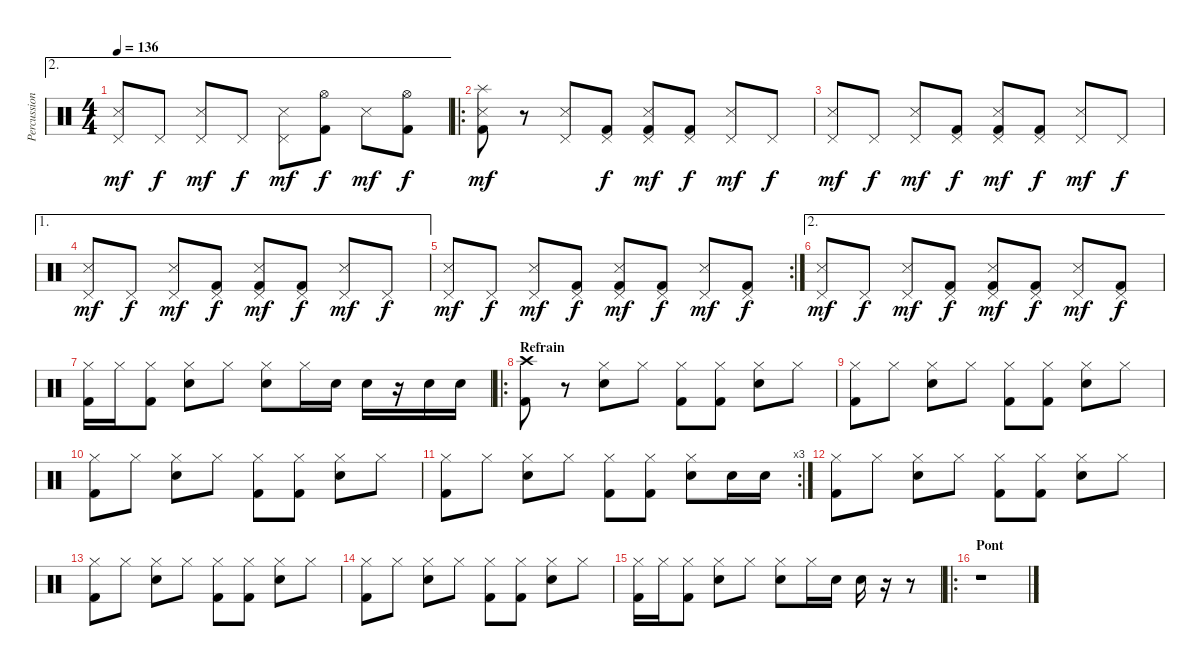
\track ("Percussions" "Percussion") {instrument percussion}
\staff {score}
\articulation defaults
\ae 2
\ts (4 4)
\tempo 136
\clef neutral
\ks c
("Pedal Hi-Hat (hit)" "Snare (side stick) 3").8{dy mf} "Pedal Hi-Hat (hit)".8{dy f} ("Pedal Hi-Hat (hit)" "Snare (side stick) 3").8{dy mf} "Pedal Hi-Hat (hit)".8{dy f} ("Pedal Hi-Hat (hit)" "Snare (side stick) 3").8{dy mf} ("Hi-Hat (open)" "Kick (hit) 2").8{dy f} "Snare (side stick) 3".8{dy mf} ("Hi-Hat (open)" "Kick (hit) 2").8{dy f} |
\ro
("Splash (hit)" "Snare (side stick) 3" "Kick (hit) 2").8{dy mf} r.8 ("Pedal Hi-Hat (hit)" "Snare (side stick) 3").8 ("Pedal Hi-Hat (hit)" "Kick (hit) 2").8{dy f} ("Pedal Hi-Hat (hit)" "Snare (side stick) 3" "Kick (hit) 2").8{dy mf} ("Pedal Hi-Hat (hit)" "Kick (hit) 2").8{dy f} ("Pedal Hi-Hat (hit)" "Snare (side stick) 3").8{dy mf} "Pedal Hi-Hat (hit)".8{dy f} |
("Pedal Hi-Hat (hit)" "Snare (side stick) 3").8{dy mf} "Pedal Hi-Hat (hit)".8{dy f} ("Pedal Hi-Hat (hit)" "Snare (side stick) 3").8{dy mf} ("Pedal Hi-Hat (hit)" "Kick (hit) 2").8{dy f} ("Pedal Hi-Hat (hit)" "Snare (side stick) 3" "Kick (hit) 2").8{dy mf} ("Pedal Hi-Hat (hit)" "Kick (hit) 2").8{dy f} ("Pedal Hi-Hat (hit)" "Snare (side stick) 3").8{dy mf} "Pedal Hi-Hat (hit)".8{dy f} |
\ae 1
("Pedal Hi-Hat (hit)" "Snare (side stick) 3").8{dy mf} "Pedal Hi-Hat (hit)".8{dy f} ("Pedal Hi-Hat (hit)" "Snare (side stick) 3").8{dy mf} ("Pedal Hi-Hat (hit)" "Kick (hit) 2").8{dy f} ("Pedal Hi-Hat (hit)" "Snare (side stick) 3" "Kick (hit) 2").8{dy mf} ("Pedal Hi-Hat (hit)" "Kick (hit) 2").8{dy f} ("Pedal Hi-Hat (hit)" "Snare (side stick) 3").8{dy mf} "Pedal Hi-Hat (hit)".8{dy f} |
\rc 2
("Pedal Hi-Hat (hit)" "Snare (side stick) 3").8{dy mf} "Pedal Hi-Hat (hit)".8{dy f} ("Pedal Hi-Hat (hit)" "Snare (side stick) 3").8{dy mf} ("Pedal Hi-Hat (hit)" "Kick (hit) 2").8{dy f} ("Pedal Hi-Hat (hit)" "Snare (side stick) 3" "Kick (hit) 2").8{dy mf} ("Pedal Hi-Hat (hit)" "Kick (hit) 2").8{dy f} ("Pedal Hi-Hat (hit)" "Snare (side stick) 3").8{dy mf} ("Pedal Hi-Hat (hit)" "Kick (hit) 2").8{dy f} |
\ae 2
("Pedal Hi-Hat (hit)" "Snare (side stick) 3").8{dy mf} "Pedal Hi-Hat (hit)".8{dy f} ("Pedal Hi-Hat (hit)" "Snare (side stick) 3").8{dy mf} ("Pedal Hi-Hat (hit)" "Kick (hit) 2").8{dy f} ("Pedal Hi-Hat (hit)" "Snare (side stick) 3" "Kick (hit) 2").8{dy mf} ("Pedal Hi-Hat (hit)" "Kick (hit) 2").8{dy f} ("Pedal Hi-Hat (hit)" "Snare (side stick) 3").8{dy mf} ("Pedal Hi-Hat (hit)" "Kick (hit) 2").8{dy f} |
("Hi-Hat (closed)" "Kick (hit) 2").16 "Hi-Hat (closed)".16 ("Hi-Hat (closed)" "Kick (hit) 2").8 ("Hi-Hat (closed)" "Electric Snare (hit)").8 "Hi-Hat (closed)".8 ("Hi-Hat (closed)" "Electric Snare (hit)").8 "Hi-Hat (closed)".16 "Electric Snare (hit)".16 "Snare (hit) 2".16 r.16 "Electric Snare (hit)".16 "Snare (hit) 2".16 |
\ro
\section ("" "Refrain")
("Crash high (hit)" "Kick (hit) 2").8 r.8 ("Hi-Hat (closed)" "Electric Snare (hit)").8 "Hi-Hat (closed)".8 ("Hi-Hat (closed)" "Kick (hit) 2").8 ("Hi-Hat (closed)" "Kick (hit) 2").8 ("Hi-Hat (closed)" "Electric Snare (hit)").8 "Hi-Hat (closed)".8 |
("Hi-Hat (closed)" "Kick (hit) 2").8 "Hi-Hat (closed)".8 ("Hi-Hat (closed)" "Electric Snare (hit)").8 "Hi-Hat (closed)".8 ("Hi-Hat (closed)" "Kick (hit) 2").8 ("Hi-Hat (closed)" "Kick (hit) 2").8 ("Hi-Hat (closed)" "Electric Snare (hit)").8 "Hi-Hat (closed)".8 |
("Hi-Hat (closed)" "Kick (hit) 2").8 "Hi-Hat (closed)".8 ("Hi-Hat (closed)" "Electric Snare (hit)").8 "Hi-Hat (closed)".8 ("Hi-Hat (closed)" "Kick (hit) 2").8 ("Hi-Hat (closed)" "Kick (hit) 2").8 ("Hi-Hat (closed)" "Electric Snare (hit)").8 "Hi-Hat (closed)".8 |
\rc 3
("Hi-Hat (closed)" "Kick (hit) 2").8 "Hi-Hat (closed)".8 ("Hi-Hat (closed)" "Electric Snare (hit)").8 "Hi-Hat (closed)".8 ("Hi-Hat (closed)" "Kick (hit) 2").8 ("Hi-Hat (closed)" "Kick (hit) 2").8 ("Hi-Hat (closed)" "Electric Snare (hit)").8 "Electric Snare (hit)".16 "Electric Snare (hit)".16 |
("Hi-Hat (closed)" "Kick (hit) 2").8 "Hi-Hat (closed)".8 ("Hi-Hat (closed)" "Electric Snare (hit)").8 "Hi-Hat (closed)".8 ("Hi-Hat (closed)" "Kick (hit) 2").8 ("Hi-Hat (closed)" "Kick (hit) 2").8 ("Hi-Hat (closed)" "Electric Snare (hit)").8 "Hi-Hat (closed)".8 |
("Hi-Hat (closed)" "Kick (hit) 2").8 "Hi-Hat (closed)".8 ("Hi-Hat (closed)" "Electric Snare (hit)").8 "Hi-Hat (closed)".8 ("Hi-Hat (closed)" "Kick (hit) 2").8 ("Hi-Hat (closed)" "Kick (hit) 2").8 ("Hi-Hat (closed)" "Electric Snare (hit)").8 "Hi-Hat (closed)".8 |
("Hi-Hat (closed)" "Kick (hit) 2").8 "Hi-Hat (closed)".8 ("Hi-Hat (closed)" "Electric Snare (hit)").8 "Hi-Hat (closed)".8 ("Hi-Hat (closed)" "Kick (hit) 2").8 ("Hi-Hat (closed)" "Kick (hit) 2").8 ("Hi-Hat (closed)" "Electric Snare (hit)").8 "Hi-Hat (closed)".8 |
("Hi-Hat (closed)" "Kick (hit) 2").16 "Hi-Hat (closed)".16 ("Hi-Hat (closed)" "Kick (hit) 2").8 ("Hi-Hat (closed)" "Electric Snare (hit)").8 "Hi-Hat (closed)".8 ("Hi-Hat (closed)" "Electric Snare (hit)").8 "Hi-Hat (closed)".16 "Electric Snare (hit)".16 "Snare (hit) 2".16 r.16 r.8 |
\ro
\section ("" "Pont")
r.1
